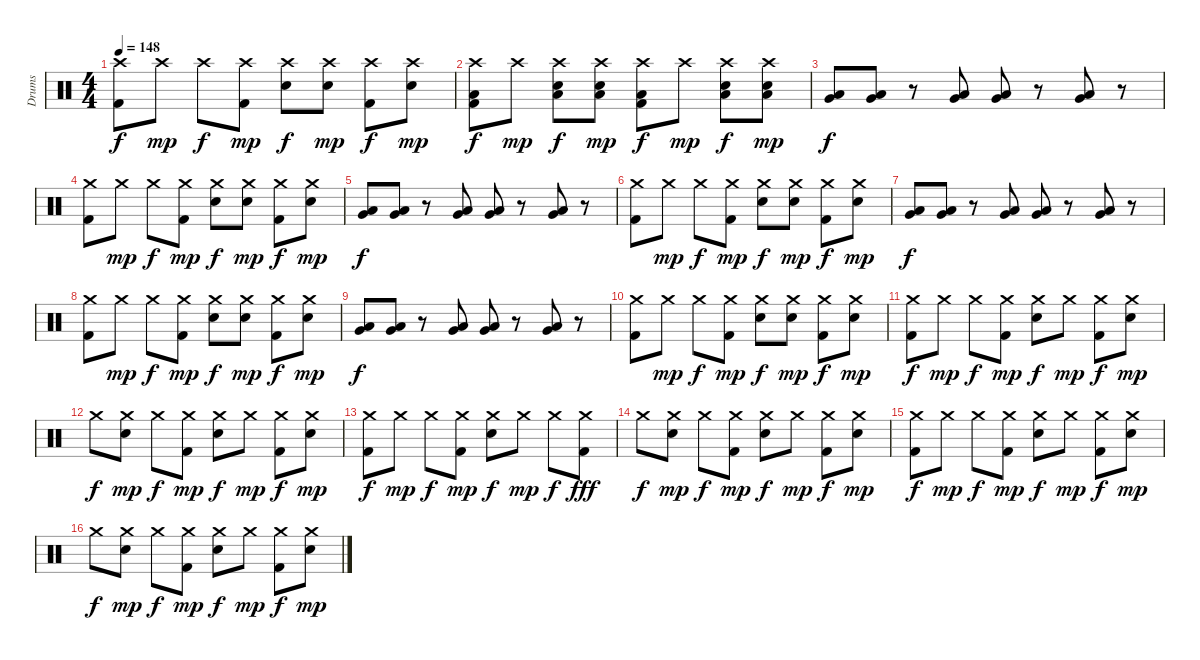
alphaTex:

\track ("Drums" "Drums") {instrument percussion}
\staff {score}
\articulation defaults
\ts (4 4)
\tempo 148
\clef neutral
\ks c
("Crash high (hit)" "Kick (hit) 2").8{dy f} "Crash high (hit)".8{dy mp} "Crash high (hit)".8{dy f} ("Crash high (hit)" "Kick (hit) 2").8{dy mp} ("Crash high (hit)" "Snare (hit) 2").8{dy f} ("Crash high (hit)" "Snare (hit) 2").8{dy mp} ("Crash high (hit)" "Kick (hit) 2").8{dy f} ("Crash high (hit)" "Snare (hit) 2").8{dy mp} |
("Crash high (hit)" "Low Tom (hit)" "Kick (hit) 2").8{dy f} "Crash high (hit)".8{dy mp} ("Crash high (hit)" "Low Tom (hit)" "Snare (hit) 2").8{dy f} ("Crash high (hit)" "Low Tom (hit)" "Snare (hit) 2").8{dy mp} ("Crash high (hit)" "Low Tom (hit)" "Kick (hit) 2").8{dy f} "Crash high (hit)".8{dy mp} ("Crash high (hit)" "Low Tom (hit)" "Snare (hit) 2").8{dy f} ("Crash high (hit)" "Low Tom (hit)" "Snare (hit) 2").8{dy mp} |
("Low Tom (hit)" "Very Low Tom (hit)").8{dy f} ("Low Tom (hit)" "Very Low Tom (hit)").8 r.8 ("Low Tom (hit)" "Very Low Tom (hit)").8 ("Low Tom (hit)" "Very Low Tom (hit)").8 r.8 ("Low Tom (hit)" "Very Low Tom (hit)").8 r.8 |
("Crash medium (hit)" "Kick (hit) 2").8 "Crash medium (hit)".8{dy mp} "Crash medium (hit)".8{dy f} ("Crash medium (hit)" "Kick (hit) 2").8{dy mp} ("Crash medium (hit)" "Snare (hit) 2").8{dy f} ("Crash medium (hit)" "Snare (hit) 2").8{dy mp} ("Crash medium (hit)" "Kick (hit) 2").8{dy f} ("Crash medium (hit)" "Snare (hit) 2").8{dy mp} |
("Low Tom (hit)" "Very Low Tom (hit)").8{dy f} ("Low Tom (hit)" "Very Low Tom (hit)").8 r.8 ("Low Tom (hit)" "Very Low Tom (hit)").8 ("Low Tom (hit)" "Very Low Tom (hit)").8 r.8 ("Low Tom (hit)" "Very Low Tom (hit)").8 r.8 |
("Crash medium (hit)" "Kick (hit) 2").8 "Crash medium (hit)".8{dy mp} "Crash medium (hit)".8{dy f} ("Crash medium (hit)" "Kick (hit) 2").8{dy mp} ("Crash medium (hit)" "Snare (hit) 2").8{dy f} ("Crash medium (hit)" "Snare (hit) 2").8{dy mp} ("Crash medium (hit)" "Kick (hit) 2").8{dy f} ("Crash medium (hit)" "Snare (hit) 2").8{dy mp} |
("Low Tom (hit)" "Very Low Tom (hit)").8{dy f} ("Low Tom (hit)" "Very Low Tom (hit)").8 r.8 ("Low Tom (hit)" "Very Low Tom (hit)").8 ("Low Tom (hit)" "Very Low Tom (hit)").8 r.8 ("Low Tom (hit)" "Very Low Tom (hit)").8 r.8 |
("Crash medium (hit)" "Kick (hit) 2").8 "Crash medium (hit)".8{dy mp} "Crash medium (hit)".8{dy f} ("Crash medium (hit)" "Kick (hit) 2").8{dy mp} ("Crash medium (hit)" "Snare (hit) 2").8{dy f} ("Crash medium (hit)" "Snare (hit) 2").8{dy mp} ("Crash medium (hit)" "Kick (hit) 2").8{dy f} ("Crash medium (hit)" "Snare (hit) 2").8{dy mp} |
("Low Tom (hit)" "Very Low Tom (hit)").8{dy f} ("Low Tom (hit)" "Very Low Tom (hit)").8 r.8 ("Low Tom (hit)" "Very Low Tom (hit)").8 ("Low Tom (hit)" "Very Low Tom (hit)").8 r.8 ("Low Tom (hit)" "Very Low Tom (hit)").8 r.8 |
("Crash medium (hit)" "Kick (hit) 2").8 "Crash medium (hit)".8{dy mp} "Crash medium (hit)".8{dy f} ("Crash medium (hit)" "Kick (hit) 2").8{dy mp} ("Crash medium (hit)" "Snare (hit) 2").8{dy f} ("Crash medium (hit)" "Snare (hit) 2").8{dy mp} ("Crash medium (hit)" "Kick (hit) 2").8{dy f} ("Crash medium (hit)" "Snare (hit) 2").8{dy mp} |
("Crash medium (hit)" "Kick (hit) 2").8{dy f} "Crash medium (hit)".8{dy mp} "Crash medium (hit)".8{dy f} ("Crash medium (hit)" "Kick (hit) 2").8{dy mp} ("Crash medium (hit)" "Snare (hit) 2").8{dy f} "Crash medium (hit)".8{dy mp} ("Crash medium (hit)" "Kick (hit) 2").8{dy f} ("Crash medium (hit)" "Snare (hit) 2").8{dy mp} |
"Crash medium (hit)".8{dy f} ("Crash medium (hit)" "Snare (hit) 2").8{dy mp} "Crash medium (hit)".8{dy f} ("Crash medium (hit)" "Kick (hit) 2").8{dy mp} ("Crash medium (hit)" "Snare (hit) 2").8{dy f} "Crash medium (hit)".8{dy mp} ("Crash medium (hit)" "Kick (hit) 2").8{dy f} ("Crash medium (hit)" "Snare (hit) 2").8{dy mp} |
("Crash medium (hit)" "Kick (hit) 2").8{dy f} "Crash medium (hit)".8{dy mp} "Crash medium (hit)".8{dy f} ("Crash medium (hit)" "Kick (hit) 2").8{dy mp} ("Crash medium (hit)" "Snare (hit) 2").8{dy f} "Crash medium (hit)".8{dy mp} "Crash medium (hit)".8{dy f} ("Crash medium (hit)" "Kick (hit) 2").8{dy fff} |
"Crash medium (hit)".8{dy f} ("Crash medium (hit)" "Snare (hit) 2").8{dy mp} "Crash medium (hit)".8{dy f} ("Crash medium (hit)" "Kick (hit) 2").8{dy mp} ("Crash medium (hit)" "Snare (hit) 2").8{dy f} "Crash medium (hit)".8{dy mp} ("Crash medium (hit)" "Kick (hit) 2").8{dy f} ("Crash medium (hit)" "Snare (hit) 2").8{dy mp} |
("Crash medium (hit)" "Kick (hit) 2").8{dy f} "Crash medium (hit)".8{dy mp} "Crash medium (hit)".8{dy f} ("Crash medium (hit)" "Kick (hit) 2").8{dy mp} ("Crash medium (hit)" "Snare (hit) 2").8{dy f} "Crash medium (hit)".8{dy mp} ("Crash medium (hit)" "Kick (hit) 2").8{dy f} ("Crash medium (hit)" "Snare (hit) 2").8{dy mp} |
"Crash medium (hit)".8{dy f} ("Crash medium (hit)" "Snare (hit) 2").8{dy mp} "Crash medium (hit)".8{dy f} ("Crash medium (hit)" "Kick (hit) 2").8{dy mp} ("Crash medium (hit)" "Snare (hit) 2").8{dy f} "Crash medium (hit)".8{dy mp} ("Crash medium (hit)" "Kick (hit) 2").8{dy f} ("Crash medium (hit)" "Snare (hit) 2").8{dy mp}
